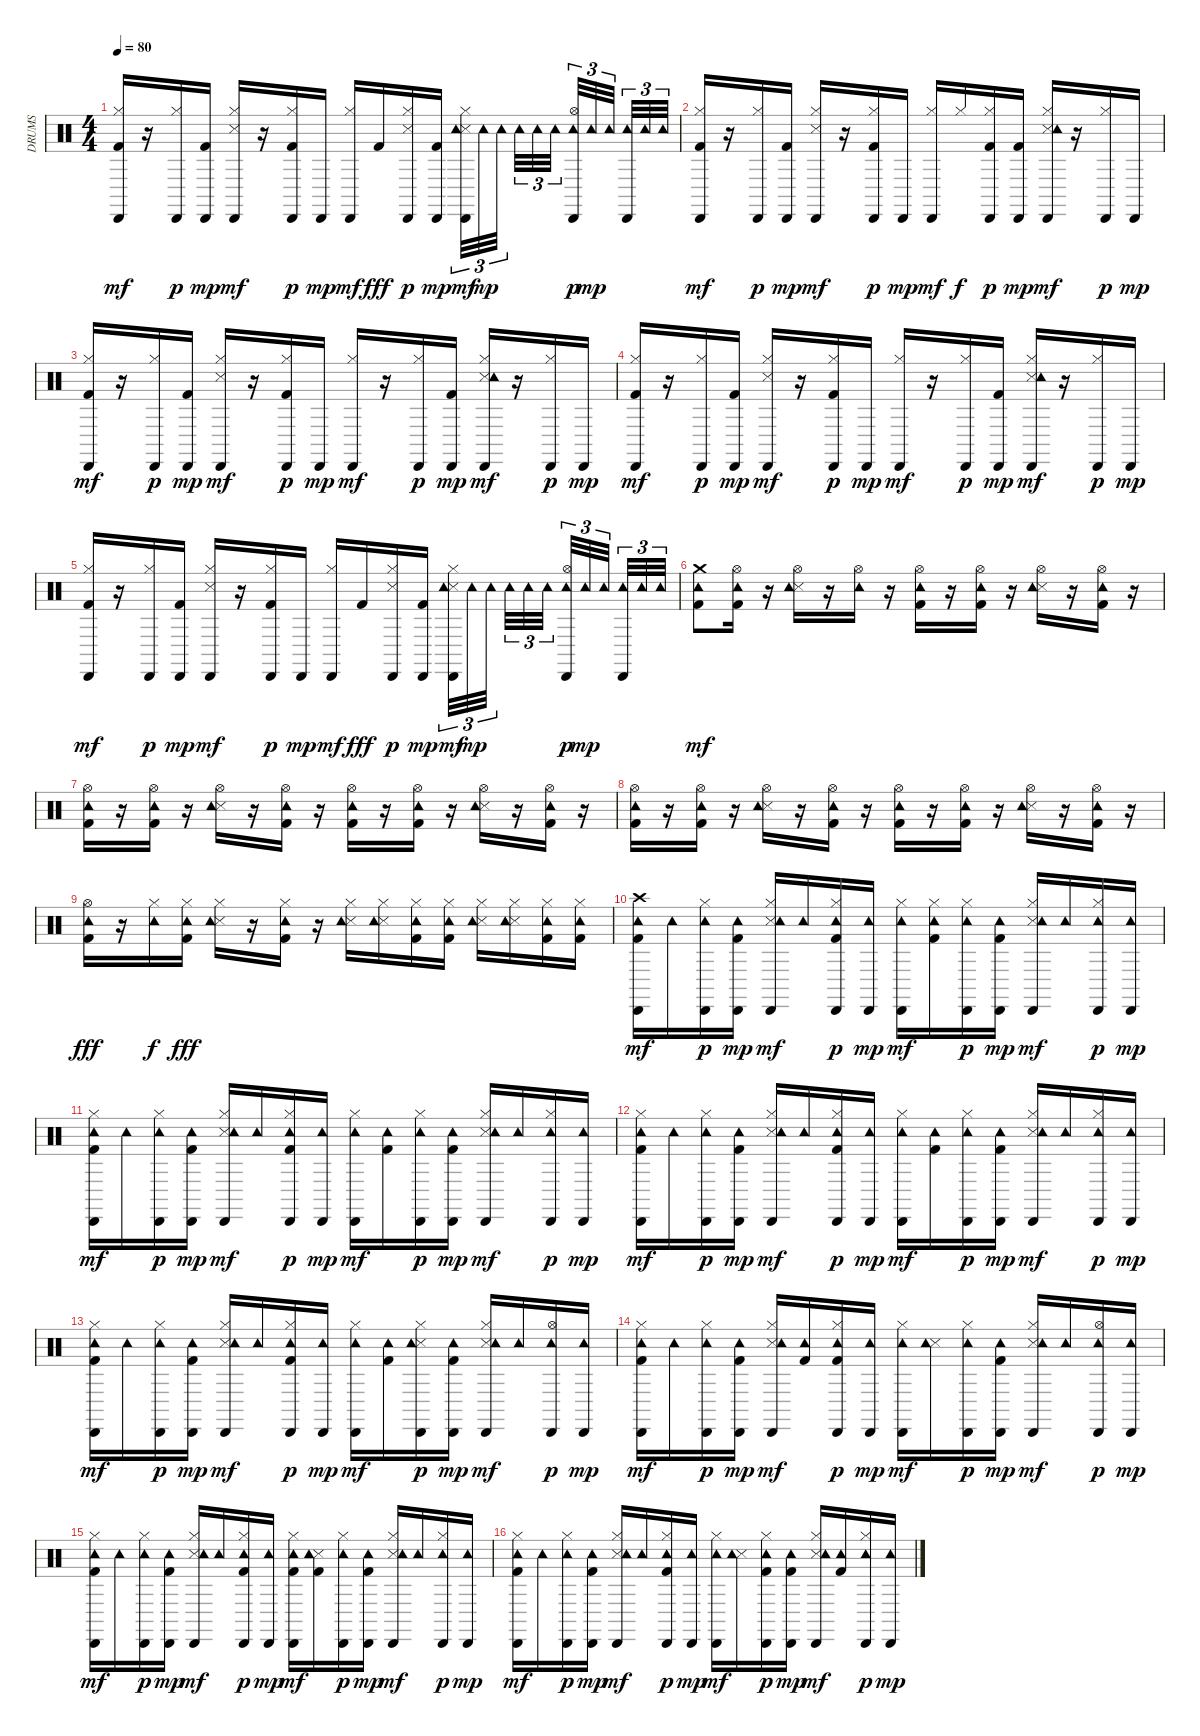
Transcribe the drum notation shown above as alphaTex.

\track ("DRUMS" "DRUMS") {instrument percussion}
\staff {score}
\articulation defaults
\ts (4 4)
\tempo 80
\clef neutral
\ks c
("Kick (hit) 2" "Hi-Hat (closed)" "Cabasa (hit)").16{dy mf} r.16 ("Hi-Hat (closed)" "Cabasa (hit)").16{dy p} ("Kick (hit) 2" "Cabasa (hit)").16{dy mp} ("Hi-Hat (closed)" "Metronome (hit)" "Cabasa (hit)").16{dy mf} r.16 ("Kick (hit) 2" "Hi-Hat (closed)" "Cabasa (hit)").16{dy p} "Cabasa (hit)".16{dy mp} ("Hi-Hat (closed)" "Cabasa (hit)").16{dy mf} "Kick (hit) 2".16{dy fff} ("Hi-Hat (closed)" "Metronome (hit)" "Cabasa (hit)").16{dy p} ("Kick (hit) 2" "Cabasa (hit)").16{dy mp} ("Hi-Hat (closed)" "Metronome (hit)" "Tambourine (hit)" "Cabasa (hit)").32{tu (3 2) dy mf} "Tambourine (hit)".32{tu (3 2) dy mp} "Tambourine (hit)".32{tu (3 2)} "Tambourine (hit)".32{tu (3 2)} "Tambourine (hit)".32{tu (3 2)} "Tambourine (hit)".32{tu (3 2)} ("Hi-Hat (open)" "Tambourine (hit)" "Cabasa (hit)").32{tu (3 2) dy p} "Tambourine (hit)".32{tu (3 2) dy mp} "Tambourine (hit)".32{tu (3 2)} ("Tambourine (hit)" "Cabasa (hit)").32{tu (3 2)} "Tambourine (hit)".32{tu (3 2)} "Tambourine (hit)".32{tu (3 2)} |
("Kick (hit) 2" "Hi-Hat (closed)" "Cabasa (hit)").16{dy mf} r.16 ("Hi-Hat (closed)" "Cabasa (hit)").16{dy p} ("Kick (hit) 2" "Cabasa (hit)").16{dy mp} ("Hi-Hat (closed)" "Metronome (hit)" "Cabasa (hit)").16{dy mf} r.16 ("Kick (hit) 2" "Hi-Hat (closed)" "Cabasa (hit)").16{dy p} "Cabasa (hit)".16{dy mp} ("Hi-Hat (closed)" "Cabasa (hit)").16{dy mf} "Hi-Hat (closed)".16{dy f} ("Kick (hit) 2" "Hi-Hat (closed)" "Cabasa (hit)").16{dy p} ("Kick (hit) 2" "Cabasa (hit)").16{dy mp} ("Hi-Hat (closed)" "Metronome (hit)" "Tambourine (hit)" "Cabasa (hit)").16{dy mf} r.16 ("Hi-Hat (closed)" "Cabasa (hit)").16{dy p} "Cabasa (hit)".16{dy mp} |
("Kick (hit) 2" "Hi-Hat (closed)" "Cabasa (hit)").16{dy mf} r.16 ("Hi-Hat (closed)" "Cabasa (hit)").16{dy p} ("Kick (hit) 2" "Cabasa (hit)").16{dy mp} ("Hi-Hat (closed)" "Metronome (hit)" "Cabasa (hit)").16{dy mf} r.16 ("Kick (hit) 2" "Hi-Hat (closed)" "Cabasa (hit)").16{dy p} "Cabasa (hit)".16{dy mp} ("Hi-Hat (closed)" "Cabasa (hit)").16{dy mf} r.16 ("Hi-Hat (closed)" "Cabasa (hit)").16{dy p} ("Kick (hit) 2" "Cabasa (hit)").16{dy mp} ("Hi-Hat (closed)" "Metronome (hit)" "Tambourine (hit)" "Cabasa (hit)").16{dy mf} r.16 ("Hi-Hat (closed)" "Cabasa (hit)").16{dy p} "Cabasa (hit)".16{dy mp} |
("Kick (hit) 2" "Hi-Hat (closed)" "Cabasa (hit)").16{dy mf} r.16 ("Hi-Hat (closed)" "Cabasa (hit)").16{dy p} ("Kick (hit) 2" "Cabasa (hit)").16{dy mp} ("Hi-Hat (closed)" "Metronome (hit)" "Cabasa (hit)").16{dy mf} r.16 ("Kick (hit) 2" "Hi-Hat (closed)" "Cabasa (hit)").16{dy p} "Cabasa (hit)".16{dy mp} ("Hi-Hat (closed)" "Cabasa (hit)").16{dy mf} r.16 ("Hi-Hat (closed)" "Cabasa (hit)").16{dy p} ("Kick (hit) 2" "Cabasa (hit)").16{dy mp} ("Hi-Hat (closed)" "Metronome (hit)" "Tambourine (hit)" "Cabasa (hit)").16{dy mf} r.16 ("Hi-Hat (closed)" "Cabasa (hit)").16{dy p} "Cabasa (hit)".16{dy mp} |
("Kick (hit) 2" "Hi-Hat (closed)" "Cabasa (hit)").16{dy mf} r.16 ("Hi-Hat (closed)" "Cabasa (hit)").16{dy p} ("Kick (hit) 2" "Cabasa (hit)").16{dy mp} ("Hi-Hat (closed)" "Metronome (hit)" "Cabasa (hit)").16{dy mf} r.16 ("Kick (hit) 2" "Hi-Hat (closed)" "Cabasa (hit)").16{dy p} "Cabasa (hit)".16{dy mp} ("Hi-Hat (closed)" "Cabasa (hit)").16{dy mf} "Kick (hit) 2".16{dy fff} ("Hi-Hat (closed)" "Metronome (hit)" "Cabasa (hit)").16{dy p} ("Kick (hit) 2" "Cabasa (hit)").16{dy mp} ("Hi-Hat (closed)" "Metronome (hit)" "Tambourine (hit)" "Cabasa (hit)").32{tu (3 2) dy mf} "Tambourine (hit)".32{tu (3 2) dy mp} "Tambourine (hit)".32{tu (3 2)} "Tambourine (hit)".32{tu (3 2)} "Tambourine (hit)".32{tu (3 2)} "Tambourine (hit)".32{tu (3 2)} ("Hi-Hat (open)" "Tambourine (hit)" "Cabasa (hit)").32{tu (3 2) dy p} "Tambourine (hit)".32{tu (3 2) dy mp} "Tambourine (hit)".32{tu (3 2)} ("Tambourine (hit)" "Cabasa (hit)").32{tu (3 2)} "Tambourine (hit)".32{tu (3 2)} "Tambourine (hit)".32{tu (3 2)} |
("Kick (hit) 2" "Crash medium (hit)" "Tambourine (hit)").8{dy mf} ("Kick (hit) 2" "Hi-Hat (open)" "Tambourine (hit)").16 r.16 ("Metronome (hit)" "Hi-Hat (open)" "Tambourine (hit)").16 r.16 ("Hi-Hat (open)" "Tambourine (hit)").16 r.16 ("Kick (hit) 2" "Hi-Hat (open)" "Tambourine (hit)").16 r.16 ("Kick (hit) 2" "Hi-Hat (open)" "Tambourine (hit)").16 r.16 ("Metronome (hit)" "Hi-Hat (open)" "Tambourine (hit)").16 r.16 ("Kick (hit) 2" "Hi-Hat (open)" "Tambourine (hit)").16 r.16 |
("Kick (hit) 2" "Hi-Hat (open)" "Tambourine (hit)").16 r.16 ("Kick (hit) 2" "Hi-Hat (open)" "Tambourine (hit)").16 r.16 ("Metronome (hit)" "Hi-Hat (open)" "Tambourine (hit)").16 r.16 ("Kick (hit) 2" "Hi-Hat (open)" "Tambourine (hit)").16 r.16 ("Kick (hit) 2" "Hi-Hat (open)" "Tambourine (hit)").16 r.16 ("Kick (hit) 2" "Hi-Hat (open)" "Tambourine (hit)").16 r.16 ("Metronome (hit)" "Hi-Hat (open)" "Tambourine (hit)").16 r.16 ("Kick (hit) 2" "Hi-Hat (open)" "Tambourine (hit)").16 r.16 |
("Kick (hit) 2" "Hi-Hat (open)" "Tambourine (hit)").16 r.16 ("Kick (hit) 2" "Hi-Hat (open)" "Tambourine (hit)").16 r.16 ("Metronome (hit)" "Hi-Hat (open)" "Tambourine (hit)").16 r.16 ("Kick (hit) 2" "Hi-Hat (open)" "Tambourine (hit)").16 r.16 ("Kick (hit) 2" "Hi-Hat (open)" "Tambourine (hit)").16 r.16 ("Kick (hit) 2" "Hi-Hat (open)" "Tambourine (hit)").16 r.16 ("Metronome (hit)" "Hi-Hat (open)" "Tambourine (hit)").16 r.16 ("Kick (hit) 2" "Hi-Hat (open)" "Tambourine (hit)").16 r.16 |
("Kick (hit) 2" "Hi-Hat (open)" "Tambourine (hit)").16{dy fff} r.16 ("Hi-Hat (closed)" "Tambourine (hit)").16{dy f} ("Kick (hit) 2" "Hi-Hat (closed)" "Tambourine (hit)").16{dy fff} ("Metronome (hit)" "Hi-Hat (closed)" "Tambourine (hit)").16 r.16 ("Hi-Hat (closed)" "Kick (hit) 2" "Tambourine (hit)").16 r.16 ("Hi-Hat (closed)" "Metronome (hit)" "Tambourine (hit)").16 ("Hi-Hat (closed)" "Metronome (hit)" "Tambourine (hit)").16 ("Hi-Hat (closed)" "Kick (hit) 2" "Tambourine (hit)").16 ("Hi-Hat (closed)" "Kick (hit) 2" "Tambourine (hit)").16 ("Metronome (hit)" "Hi-Hat (closed)" "Tambourine (hit)").16 ("Hi-Hat (closed)" "Metronome (hit)" "Tambourine (hit)").16 ("Hi-Hat (closed)" "Kick (hit) 2" "Tambourine (hit)").16 ("Kick (hit) 2" "Hi-Hat (closed)" "Tambourine (hit)").16 |
("Kick (hit) 2" "Crash high (hit)" "Tambourine (hit)" "Cabasa (hit)").16{dy mf} "Tambourine (hit)".16 ("Hi-Hat (closed)" "Tambourine (hit)" "Cabasa (hit)").16{dy p} ("Kick (hit) 2" "Tambourine (hit)" "Cabasa (hit)").16{dy mp} ("Hi-Hat (closed)" "Metronome (hit)" "Tambourine (hit)" "Cabasa (hit)").16{dy mf} "Tambourine (hit)".16 ("Kick (hit) 2" "Hi-Hat (closed)" "Tambourine (hit)" "Cabasa (hit)").16{dy p} ("Tambourine (hit)" "Cabasa (hit)").16{dy mp} ("Hi-Hat (closed)" "Tambourine (hit)" "Cabasa (hit)").16{dy mf} ("Kick (hit) 2" "Hi-Hat (closed)" "Tambourine (hit)").16 ("Hi-Hat (closed)" "Tambourine (hit)" "Cabasa (hit)").16{dy p} ("Kick (hit) 2" "Tambourine (hit)" "Cabasa (hit)").16{dy mp} ("Hi-Hat (closed)" "Metronome (hit)" "Tambourine (hit)" "Cabasa (hit)").16{dy mf} "Tambourine (hit)".16 ("Hi-Hat (closed)" "Tambourine (hit)" "Cabasa (hit)").16{dy p} ("Tambourine (hit)" "Cabasa (hit)").16{dy mp} |
("Kick (hit) 2" "Hi-Hat (closed)" "Tambourine (hit)" "Cabasa (hit)").16{dy mf} "Tambourine (hit)".16 ("Hi-Hat (closed)" "Tambourine (hit)" "Cabasa (hit)").16{dy p} ("Kick (hit) 2" "Tambourine (hit)" "Cabasa (hit)").16{dy mp} ("Hi-Hat (closed)" "Metronome (hit)" "Tambourine (hit)" "Cabasa (hit)").16{dy mf} "Tambourine (hit)".16 ("Kick (hit) 2" "Hi-Hat (closed)" "Tambourine (hit)" "Cabasa (hit)").16{dy p} ("Tambourine (hit)" "Cabasa (hit)").16{dy mp} ("Hi-Hat (closed)" "Tambourine (hit)" "Cabasa (hit)").16{dy mf} ("Kick (hit) 2" "Tambourine (hit)").16 ("Hi-Hat (closed)" "Tambourine (hit)" "Cabasa (hit)").16{dy p} ("Kick (hit) 2" "Tambourine (hit)" "Cabasa (hit)").16{dy mp} ("Hi-Hat (closed)" "Metronome (hit)" "Tambourine (hit)" "Cabasa (hit)").16{dy mf} "Tambourine (hit)".16 ("Hi-Hat (closed)" "Tambourine (hit)" "Cabasa (hit)").16{dy p} ("Tambourine (hit)" "Cabasa (hit)").16{dy mp} |
("Kick (hit) 2" "Hi-Hat (closed)" "Tambourine (hit)" "Cabasa (hit)").16{dy mf} "Tambourine (hit)".16 ("Hi-Hat (closed)" "Tambourine (hit)" "Cabasa (hit)").16{dy p} ("Kick (hit) 2" "Tambourine (hit)" "Cabasa (hit)").16{dy mp} ("Hi-Hat (closed)" "Metronome (hit)" "Tambourine (hit)" "Cabasa (hit)").16{dy mf} "Tambourine (hit)".16 ("Kick (hit) 2" "Hi-Hat (closed)" "Tambourine (hit)" "Cabasa (hit)").16{dy p} ("Tambourine (hit)" "Cabasa (hit)").16{dy mp} ("Hi-Hat (closed)" "Tambourine (hit)" "Cabasa (hit)").16{dy mf} ("Kick (hit) 2" "Tambourine (hit)").16 ("Hi-Hat (closed)" "Tambourine (hit)" "Cabasa (hit)").16{dy p} ("Kick (hit) 2" "Tambourine (hit)" "Cabasa (hit)").16{dy mp} ("Hi-Hat (closed)" "Metronome (hit)" "Tambourine (hit)" "Cabasa (hit)").16{dy mf} "Tambourine (hit)".16 ("Hi-Hat (closed)" "Tambourine (hit)" "Cabasa (hit)").16{dy p} ("Tambourine (hit)" "Cabasa (hit)").16{dy mp} |
("Kick (hit) 2" "Hi-Hat (closed)" "Tambourine (hit)" "Cabasa (hit)").16{dy mf} "Tambourine (hit)".16 ("Hi-Hat (closed)" "Tambourine (hit)" "Cabasa (hit)").16{dy p} ("Kick (hit) 2" "Tambourine (hit)" "Cabasa (hit)").16{dy mp} ("Hi-Hat (closed)" "Metronome (hit)" "Tambourine (hit)" "Cabasa (hit)").16{dy mf} "Tambourine (hit)".16 ("Kick (hit) 2" "Hi-Hat (closed)" "Tambourine (hit)" "Cabasa (hit)").16{dy p} ("Tambourine (hit)" "Cabasa (hit)").16{dy mp} ("Hi-Hat (closed)" "Tambourine (hit)" "Cabasa (hit)").16{dy mf} ("Kick (hit) 2" "Tambourine (hit)").16 ("Hi-Hat (closed)" "Metronome (hit)" "Tambourine (hit)" "Cabasa (hit)").16{dy p} ("Kick (hit) 2" "Tambourine (hit)" "Cabasa (hit)").16{dy mp} ("Hi-Hat (closed)" "Metronome (hit)" "Tambourine (hit)" "Cabasa (hit)").16{dy mf} "Tambourine (hit)".16 ("Hi-Hat (open)" "Tambourine (hit)" "Cabasa (hit)").16{dy p} ("Tambourine (hit)" "Cabasa (hit)").16{dy mp} |
("Kick (hit) 2" "Hi-Hat (closed)" "Tambourine (hit)" "Cabasa (hit)").16{dy mf} "Tambourine (hit)".16 ("Hi-Hat (closed)" "Tambourine (hit)" "Cabasa (hit)").16{dy p} ("Kick (hit) 2" "Tambourine (hit)" "Cabasa (hit)").16{dy mp} ("Hi-Hat (closed)" "Metronome (hit)" "Tambourine (hit)" "Cabasa (hit)").16{dy mf} ("Kick (hit) 2" "Tambourine (hit)").16 ("Kick (hit) 2" "Hi-Hat (closed)" "Tambourine (hit)" "Cabasa (hit)").16{dy p} ("Tambourine (hit)" "Cabasa (hit)").16{dy mp} ("Hi-Hat (closed)" "Tambourine (hit)" "Cabasa (hit)").16{dy mf} ("Metronome (hit)" "Tambourine (hit)").16 ("Hi-Hat (closed)" "Tambourine (hit)" "Cabasa (hit)").16{dy p} ("Kick (hit) 2" "Tambourine (hit)" "Cabasa (hit)").16{dy mp} ("Hi-Hat (closed)" "Metronome (hit)" "Tambourine (hit)" "Cabasa (hit)").16{dy mf} "Tambourine (hit)".16 ("Hi-Hat (open)" "Tambourine (hit)" "Cabasa (hit)").16{dy p} ("Tambourine (hit)" "Cabasa (hit)").16{dy mp} |
("Kick (hit) 2" "Hi-Hat (closed)" "Tambourine (hit)" "Cabasa (hit)").16{dy mf} "Tambourine (hit)".16 ("Hi-Hat (closed)" "Tambourine (hit)" "Cabasa (hit)").16{dy p} ("Kick (hit) 2" "Tambourine (hit)" "Cabasa (hit)").16{dy mp} ("Hi-Hat (closed)" "Metronome (hit)" "Tambourine (hit)" "Cabasa (hit)").16{dy mf} "Tambourine (hit)".16 ("Kick (hit) 2" "Hi-Hat (closed)" "Tambourine (hit)" "Cabasa (hit)").16{dy p} ("Tambourine (hit)" "Cabasa (hit)").16{dy mp} ("Kick (hit) 2" "Hi-Hat (closed)" "Tambourine (hit)" "Cabasa (hit)").16{dy mf} ("Kick (hit) 2" "Metronome (hit)" "Tambourine (hit)").16 ("Hi-Hat (closed)" "Tambourine (hit)" "Cabasa (hit)").16{dy p} ("Kick (hit) 2" "Tambourine (hit)" "Cabasa (hit)").16{dy mp} ("Hi-Hat (closed)" "Metronome (hit)" "Tambourine (hit)" "Cabasa (hit)").16{dy mf} "Tambourine (hit)".16 ("Hi-Hat (closed)" "Tambourine (hit)" "Cabasa (hit)").16{dy p} ("Tambourine (hit)" "Cabasa (hit)").16{dy mp} |
("Kick (hit) 2" "Hi-Hat (closed)" "Tambourine (hit)" "Cabasa (hit)").16{dy mf} "Tambourine (hit)".16 ("Hi-Hat (closed)" "Tambourine (hit)" "Cabasa (hit)").16{dy p} ("Kick (hit) 2" "Tambourine (hit)" "Cabasa (hit)").16{dy mp} ("Hi-Hat (closed)" "Metronome (hit)" "Tambourine (hit)" "Cabasa (hit)").16{dy mf} "Tambourine (hit)".16 ("Kick (hit) 2" "Hi-Hat (closed)" "Tambourine (hit)" "Cabasa (hit)").16{dy p} ("Tambourine (hit)" "Cabasa (hit)").16{dy mp} ("Hi-Hat (closed)" "Tambourine (hit)" "Cabasa (hit)").16{dy mf} ("Metronome (hit)" "Tambourine (hit)").16 ("Kick (hit) 2" "Hi-Hat (closed)" "Tambourine (hit)" "Cabasa (hit)").16{dy p} ("Kick (hit) 2" "Tambourine (hit)" "Cabasa (hit)").16{dy mp} ("Hi-Hat (closed)" "Metronome (hit)" "Tambourine (hit)" "Cabasa (hit)").16{dy mf} ("Kick (hit) 2" "Tambourine (hit)").16 ("Hi-Hat (closed)" "Tambourine (hit)" "Cabasa (hit)").16{dy p} ("Tambourine (hit)" "Cabasa (hit)").16{dy mp}
